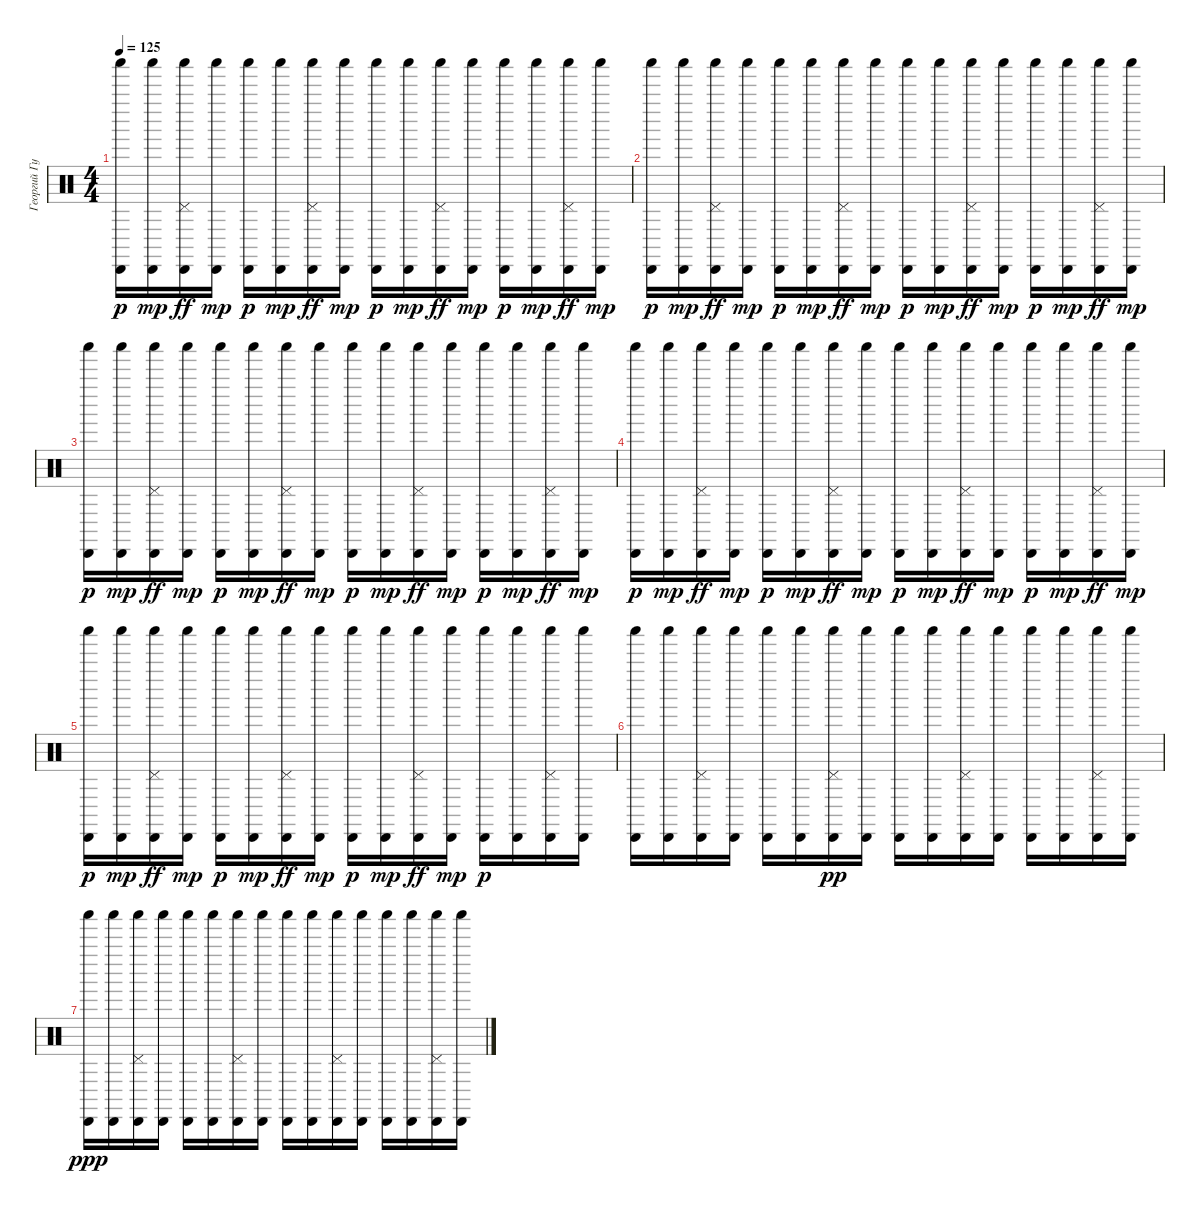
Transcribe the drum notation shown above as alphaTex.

\track ("Георгий Гурьянов_2" "Георгий Гу") {instrument percussion}
\staff {score}
\articulation defaults
\ts (4 4)
\tempo 125
\clef neutral
\ks c
("Cabasa (hit)" "Shaker (hit)").16{dy p} ("Cabasa (hit)" "Shaker (hit)").16{dy mp} ("Cabasa (hit)" "Shaker (hit)" "Pedal Hi-Hat (hit)").16{dy ff} ("Cabasa (hit)" "Shaker (hit)").16{dy mp} ("Cabasa (hit)" "Shaker (hit)").16{dy p} ("Cabasa (hit)" "Shaker (hit)").16{dy mp} ("Cabasa (hit)" "Shaker (hit)" "Pedal Hi-Hat (hit)").16{dy ff} ("Cabasa (hit)" "Shaker (hit)").16{dy mp} ("Cabasa (hit)" "Shaker (hit)").16{dy p} ("Cabasa (hit)" "Shaker (hit)").16{dy mp} ("Cabasa (hit)" "Shaker (hit)" "Pedal Hi-Hat (hit)").16{dy ff} ("Cabasa (hit)" "Shaker (hit)").16{dy mp} ("Cabasa (hit)" "Shaker (hit)").16{dy p} ("Cabasa (hit)" "Shaker (hit)").16{dy mp} ("Cabasa (hit)" "Shaker (hit)" "Pedal Hi-Hat (hit)").16{dy ff} ("Cabasa (hit)" "Shaker (hit)").16{dy mp} |
("Cabasa (hit)" "Shaker (hit)").16{dy p} ("Cabasa (hit)" "Shaker (hit)").16{dy mp} ("Cabasa (hit)" "Shaker (hit)" "Pedal Hi-Hat (hit)").16{dy ff} ("Cabasa (hit)" "Shaker (hit)").16{dy mp} ("Cabasa (hit)" "Shaker (hit)").16{dy p} ("Cabasa (hit)" "Shaker (hit)").16{dy mp} ("Cabasa (hit)" "Shaker (hit)" "Pedal Hi-Hat (hit)").16{dy ff} ("Cabasa (hit)" "Shaker (hit)").16{dy mp} ("Cabasa (hit)" "Shaker (hit)").16{dy p} ("Cabasa (hit)" "Shaker (hit)").16{dy mp} ("Cabasa (hit)" "Shaker (hit)" "Pedal Hi-Hat (hit)").16{dy ff} ("Cabasa (hit)" "Shaker (hit)").16{dy mp} ("Cabasa (hit)" "Shaker (hit)").16{dy p} ("Cabasa (hit)" "Shaker (hit)").16{dy mp} ("Cabasa (hit)" "Shaker (hit)" "Pedal Hi-Hat (hit)").16{dy ff} ("Cabasa (hit)" "Shaker (hit)").16{dy mp} |
("Cabasa (hit)" "Shaker (hit)").16{dy p} ("Cabasa (hit)" "Shaker (hit)").16{dy mp} ("Cabasa (hit)" "Shaker (hit)" "Pedal Hi-Hat (hit)").16{dy ff} ("Cabasa (hit)" "Shaker (hit)").16{dy mp} ("Cabasa (hit)" "Shaker (hit)").16{dy p} ("Cabasa (hit)" "Shaker (hit)").16{dy mp} ("Cabasa (hit)" "Shaker (hit)" "Pedal Hi-Hat (hit)").16{dy ff} ("Cabasa (hit)" "Shaker (hit)").16{dy mp} ("Cabasa (hit)" "Shaker (hit)").16{dy p} ("Cabasa (hit)" "Shaker (hit)").16{dy mp} ("Cabasa (hit)" "Shaker (hit)" "Pedal Hi-Hat (hit)").16{dy ff} ("Cabasa (hit)" "Shaker (hit)").16{dy mp} ("Cabasa (hit)" "Shaker (hit)").16{dy p} ("Cabasa (hit)" "Shaker (hit)").16{dy mp} ("Cabasa (hit)" "Shaker (hit)" "Pedal Hi-Hat (hit)").16{dy ff} ("Cabasa (hit)" "Shaker (hit)").16{dy mp} |
("Cabasa (hit)" "Shaker (hit)").16{dy p} ("Cabasa (hit)" "Shaker (hit)").16{dy mp} ("Cabasa (hit)" "Shaker (hit)" "Pedal Hi-Hat (hit)").16{dy ff} ("Cabasa (hit)" "Shaker (hit)").16{dy mp} ("Cabasa (hit)" "Shaker (hit)").16{dy p} ("Cabasa (hit)" "Shaker (hit)").16{dy mp} ("Cabasa (hit)" "Shaker (hit)" "Pedal Hi-Hat (hit)").16{dy ff} ("Cabasa (hit)" "Shaker (hit)").16{dy mp} ("Cabasa (hit)" "Shaker (hit)").16{dy p} ("Cabasa (hit)" "Shaker (hit)").16{dy mp} ("Cabasa (hit)" "Shaker (hit)" "Pedal Hi-Hat (hit)").16{dy ff} ("Cabasa (hit)" "Shaker (hit)").16{dy mp} ("Cabasa (hit)" "Shaker (hit)").16{dy p} ("Cabasa (hit)" "Shaker (hit)").16{dy mp} ("Cabasa (hit)" "Shaker (hit)" "Pedal Hi-Hat (hit)").16{dy ff} ("Cabasa (hit)" "Shaker (hit)").16{dy mp} |
("Cabasa (hit)" "Shaker (hit)").16{dy p} ("Cabasa (hit)" "Shaker (hit)").16{dy mp} ("Cabasa (hit)" "Shaker (hit)" "Pedal Hi-Hat (hit)").16{dy ff} ("Cabasa (hit)" "Shaker (hit)").16{dy mp} ("Cabasa (hit)" "Shaker (hit)").16{dy p} ("Cabasa (hit)" "Shaker (hit)").16{dy mp} ("Cabasa (hit)" "Shaker (hit)" "Pedal Hi-Hat (hit)").16{dy ff} ("Cabasa (hit)" "Shaker (hit)").16{dy mp} ("Cabasa (hit)" "Shaker (hit)").16{dy p} ("Cabasa (hit)" "Shaker (hit)").16{dy mp} ("Cabasa (hit)" "Shaker (hit)" "Pedal Hi-Hat (hit)").16{dy ff} ("Cabasa (hit)" "Shaker (hit)").16{dy mp} ("Cabasa (hit)" "Shaker (hit)").16{dy p} ("Cabasa (hit)" "Shaker (hit)").16 ("Cabasa (hit)" "Shaker (hit)" "Pedal Hi-Hat (hit)").16 ("Cabasa (hit)" "Shaker (hit)").16 |
("Cabasa (hit)" "Shaker (hit)").16 ("Cabasa (hit)" "Shaker (hit)").16 ("Cabasa (hit)" "Shaker (hit)" "Pedal Hi-Hat (hit)").16 ("Cabasa (hit)" "Shaker (hit)").16 ("Cabasa (hit)" "Shaker (hit)").16 ("Cabasa (hit)" "Shaker (hit)").16 ("Cabasa (hit)" "Shaker (hit)" "Pedal Hi-Hat (hit)").16{dy pp} ("Cabasa (hit)" "Shaker (hit)").16 ("Cabasa (hit)" "Shaker (hit)").16 ("Cabasa (hit)" "Shaker (hit)").16 ("Cabasa (hit)" "Shaker (hit)" "Pedal Hi-Hat (hit)").16 ("Cabasa (hit)" "Shaker (hit)").16 ("Cabasa (hit)" "Shaker (hit)").16 ("Cabasa (hit)" "Shaker (hit)").16 ("Cabasa (hit)" "Shaker (hit)" "Pedal Hi-Hat (hit)").16 ("Cabasa (hit)" "Shaker (hit)").16 |
("Cabasa (hit)" "Shaker (hit)").16{dy ppp} ("Cabasa (hit)" "Shaker (hit)").16 ("Cabasa (hit)" "Shaker (hit)" "Pedal Hi-Hat (hit)").16 ("Cabasa (hit)" "Shaker (hit)").16 ("Cabasa (hit)" "Shaker (hit)").16 ("Cabasa (hit)" "Shaker (hit)").16 ("Cabasa (hit)" "Shaker (hit)" "Pedal Hi-Hat (hit)").16 ("Cabasa (hit)" "Shaker (hit)").16 ("Cabasa (hit)" "Shaker (hit)").16 ("Cabasa (hit)" "Shaker (hit)").16 ("Cabasa (hit)" "Shaker (hit)" "Pedal Hi-Hat (hit)").16 ("Cabasa (hit)" "Shaker (hit)").16 ("Cabasa (hit)" "Shaker (hit)").16 ("Cabasa (hit)" "Shaker (hit)").16 ("Cabasa (hit)" "Shaker (hit)" "Pedal Hi-Hat (hit)").16 ("Cabasa (hit)" "Shaker (hit)").16
